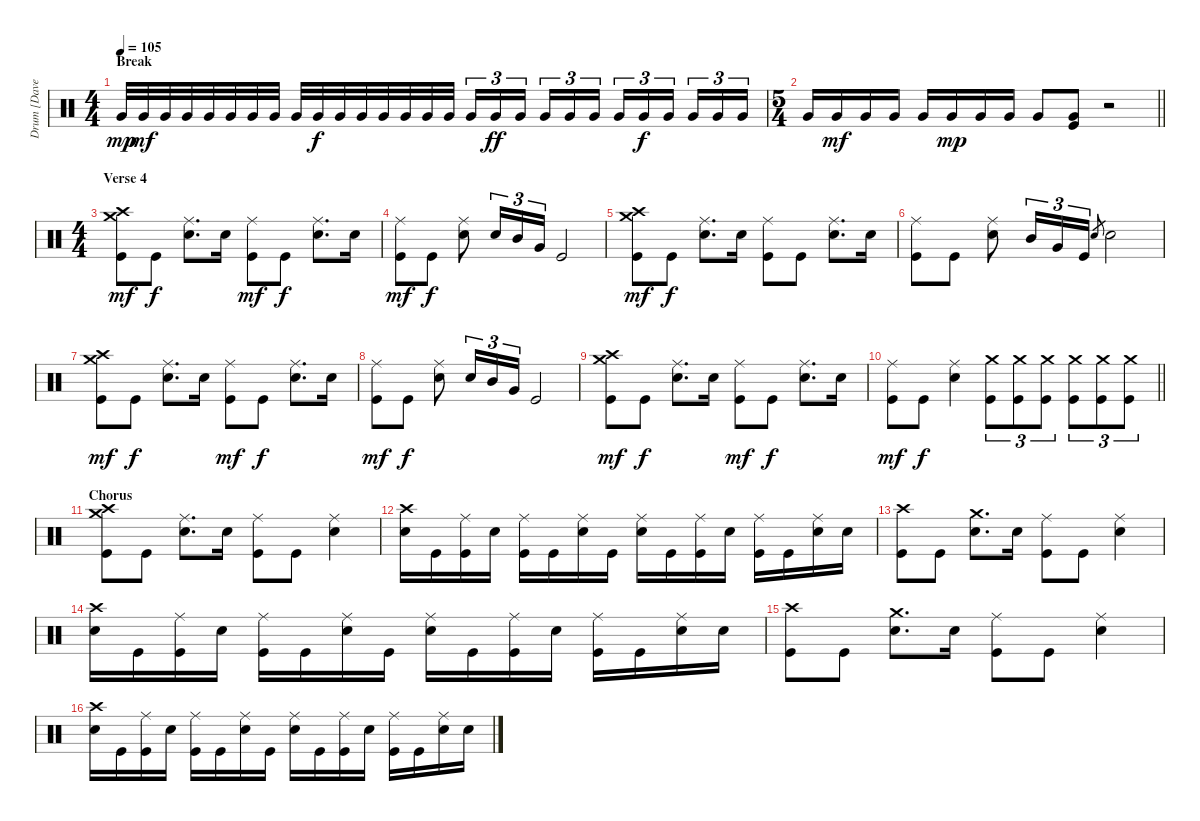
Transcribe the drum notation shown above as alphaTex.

\track ("Drum [Dave Grohl]" "Drum [Dave") {instrument percussion bank 84}
\staff {score}
\articulation defaults
\ts (4 4)
\section ("" "Break")
\tempo 105
\clef neutral
\ks c "Very Low Tom (hit)".32{dy mp} "Very Low Tom (hit)".32{dy mf} "Very Low Tom (hit)".32 "Very Low Tom (hit)".32 "Very Low Tom (hit)".32 "Very Low Tom (hit)".32 "Very Low Tom (hit)".32 "Very Low Tom (hit)".32 "Very Low Tom (hit)".32 "Very Low Tom (hit)".32{dy f} "Very Low Tom (hit)".32 "Very Low Tom (hit)".32 "Very Low Tom (hit)".32 "Very Low Tom (hit)".32 "Very Low Tom (hit)".32 "Very Low Tom (hit)".32 "Very Low Tom (hit)".16{tu (3 2)} "Very Low Tom (hit)".16{tu (3 2) dy ff} "Very Low Tom (hit)".16{tu (3 2) beam splitsecondary} "Very Low Tom (hit)".16{tu (3 2)} "Very Low Tom (hit)".16{tu (3 2)} "Very Low Tom (hit)".16{tu (3 2)} "Very Low Tom (hit)".16{tu (3 2)} "Very Low Tom (hit)".16{tu (3 2) dy f} "Very Low Tom (hit)".16{tu (3 2) beam splitsecondary} "Very Low Tom (hit)".16{tu (3 2)} "Very Low Tom (hit)".16{tu (3 2)} "Very Low Tom (hit)".16{tu (3 2)}
|
\ts (5 4)
\barLineRight lightlight "Very Low Tom (hit)".16 "Very Low Tom (hit)".16{dy mf} "Very Low Tom (hit)".16 "Very Low Tom (hit)".16 "Very Low Tom (hit)".16 "Very Low Tom (hit)".16{dy mp} "Very Low Tom (hit)".16 "Very Low Tom (hit)".16 "Very Low Tom (hit)".8
("Very Low Tom (hit)" "Kick (hit)").8 r.2 |
\ts (4 4)
\section ("" "Verse 4")
("Crash high (hit)" "Crash medium (hit)" "Kick (hit)").8{dy mf} "Kick (hit)".8{dy f} ("Ride (middle)" "Electric Snare (hit)").8{d} "Electric Snare (hit)".16 ("Ride (middle)" "Kick (hit)").8{dy mf} "Kick (hit)".8{dy f} ("Ride (middle)" "Electric Snare (hit)").8{d} "Electric Snare (hit)".16 |
("Ride (middle)" "Kick (hit)").8{dy mf} "Kick (hit)".8{dy f} ("Ride (middle)" "Electric Snare (hit)").8 "Electric Snare (hit)".16{tu (3 2)} "Mid Tom (hit)".16{tu (3 2)} "Very Low Tom (hit)".16{tu (3 2)} "Kick (hit)".2 |
("Crash high (hit)" "Crash medium (hit)" "Kick (hit)").8{dy mf} "Kick (hit)".8{dy f} ("Ride (middle)" "Electric Snare (hit)").8{d} "Electric Snare (hit)".16 ("Ride (middle)" "Kick (hit)").8 "Kick (hit)".8 ("Ride (middle)" "Electric Snare (hit)").8{d} "Electric Snare (hit)".16 |
("Ride (middle)" "Kick (hit)").8 "Kick (hit)".8 ("Ride (middle)" "Electric Snare (hit)").8 "Mid Tom (hit)".16{tu (3 2)} "Very Low Tom (hit)".16{tu (3 2)} "Kick (hit)".16{tu (3 2)} "Electric Snare (hit)".8{gr} "Electric Snare (hit)".2 |
("Crash high (hit)" "Crash medium (hit)" "Kick (hit)").8{dy mf} "Kick (hit)".8{dy f} ("Ride (middle)" "Electric Snare (hit)").8{d} "Electric Snare (hit)".16 ("Ride (middle)" "Kick (hit)").8{dy mf} "Kick (hit)".8{dy f} ("Ride (middle)" "Electric Snare (hit)").8{d} "Electric Snare (hit)".16 |
("Ride (middle)" "Kick (hit)").8{dy mf} "Kick (hit)".8{dy f} ("Ride (middle)" "Electric Snare (hit)").8 "Electric Snare (hit)".16{tu (3 2)} "Mid Tom (hit)".16{tu (3 2)} "Very Low Tom (hit)".16{tu (3 2)} "Kick (hit)".2 |
("Crash high (hit)" "Crash medium (hit)" "Kick (hit)").8{dy mf} "Kick (hit)".8{dy f} ("Ride (middle)" "Electric Snare (hit)").8{d} "Electric Snare (hit)".16 ("Ride (middle)" "Kick (hit)").8{dy mf} "Kick (hit)".8{dy f} ("Ride (middle)" "Electric Snare (hit)").8{d} "Electric Snare (hit)".16 |
\barLineRight lightlight
("Ride (middle)" "Kick (hit)").8{dy mf} "Kick (hit)".8{dy f} ("Ride (middle)" "Electric Snare (hit)").4 ("Crash medium (hit)" "Kick (hit)").8{tu (3 2)} ("Crash medium (hit)" "Kick (hit)").8{tu (3 2)} ("Crash medium (hit)" "Kick (hit)").8{tu (3 2)} ("Crash medium (hit)" "Kick (hit)").8{tu (3 2)} ("Crash medium (hit)" "Kick (hit)").8{tu (3 2)} ("Crash medium (hit)" "Kick (hit)").8{tu (3 2)} |
\section ("" "Chorus")
("Crash high (hit)" "Crash medium (hit)" "Kick (hit)").8 "Kick (hit)".8 ("Ride (middle)" "Electric Snare (hit)").8{d} "Electric Snare (hit)".16 ("Ride (middle)" "Kick (hit)").8 "Kick (hit)".8 ("Ride (middle)" "Electric Snare (hit)").4 |
("Crash high (hit)" "Electric Snare (hit)").16 "Kick (hit)".16 ("Ride (middle)" "Kick (hit)").16 "Electric Snare (hit)".16 ("Ride (middle)" "Kick (hit)").16 "Kick (hit)".16 ("Ride (middle)" "Electric Snare (hit)").16 "Kick (hit)".16 ("Ride (middle)" "Electric Snare (hit)").16 "Kick (hit)".16 ("Ride (middle)" "Kick (hit)").16 "Electric Snare (hit)".16 ("Ride (middle)" "Kick (hit)").16 "Kick (hit)".16 ("Ride (middle)" "Electric Snare (hit)").16 "Electric Snare (hit)".16 |
("Crash high (hit)" "Kick (hit)").8 "Kick (hit)".8 ("Crash medium (hit)" "Electric Snare (hit)").8{d} "Electric Snare (hit)".16 ("Ride (middle)" "Kick (hit)").8 "Kick (hit)".8 ("Ride (middle)" "Electric Snare (hit)").4 |
("Crash high (hit)" "Electric Snare (hit)").16 "Kick (hit)".16 ("Ride (middle)" "Kick (hit)").16 "Electric Snare (hit)".16 ("Ride (middle)" "Kick (hit)").16 "Kick (hit)".16 ("Ride (middle)" "Electric Snare (hit)").16 "Kick (hit)".16 ("Ride (middle)" "Electric Snare (hit)").16 "Kick (hit)".16 ("Ride (middle)" "Kick (hit)").16 "Electric Snare (hit)".16 ("Ride (middle)" "Kick (hit)").16 "Kick (hit)".16 ("Ride (middle)" "Electric Snare (hit)").16 "Electric Snare (hit)".16 |
("Crash high (hit)" "Kick (hit)").8 "Kick (hit)".8 ("Crash medium (hit)" "Electric Snare (hit)").8{d} "Electric Snare (hit)".16 ("Ride (middle)" "Kick (hit)").8 "Kick (hit)".8 ("Ride (middle)" "Electric Snare (hit)").4 |
("Crash high (hit)" "Electric Snare (hit)").16 "Kick (hit)".16 ("Ride (middle)" "Kick (hit)").16 "Electric Snare (hit)".16 ("Ride (middle)" "Kick (hit)").16 "Kick (hit)".16 ("Ride (middle)" "Electric Snare (hit)").16 "Kick (hit)".16 ("Ride (middle)" "Electric Snare (hit)").16 "Kick (hit)".16 ("Ride (middle)" "Kick (hit)").16 "Electric Snare (hit)".16 ("Ride (middle)" "Kick (hit)").16 "Kick (hit)".16 ("Ride (middle)" "Electric Snare (hit)").16 "Electric Snare (hit)".16
